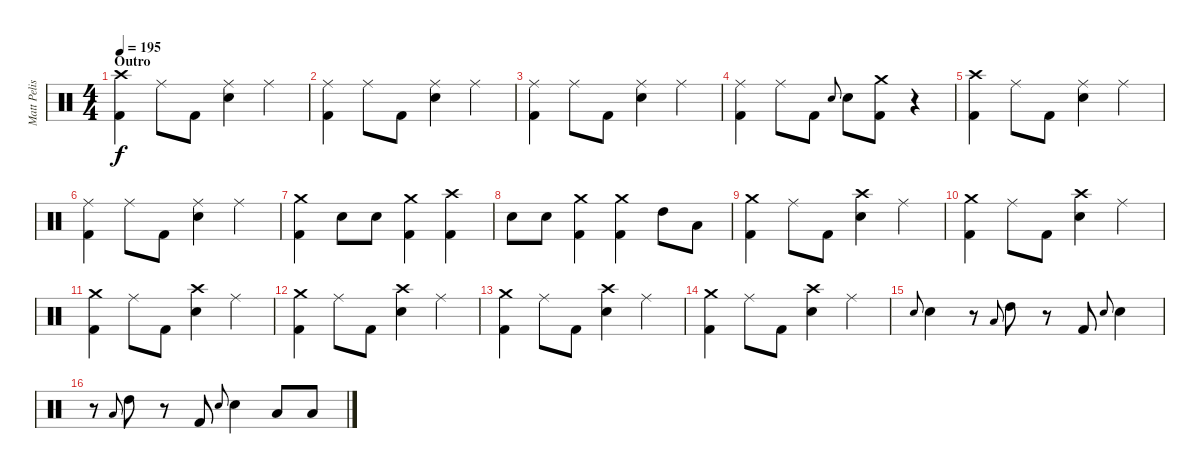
\track ("Matt Pelissier" "Matt Pelis") {instrument percussion}
\staff {score}
\articulation defaults
\ts (4 4)
\section ("" "Outro")
\tempo 195
\clef neutral
\ks c
("Crash high (hit)" "Kick (hit) 2").4{dy f} "Ride (middle)".8 "Kick (hit) 2".8 ("Ride (middle)" "Electric Snare (hit)").4 "Ride (middle)".4 |
("Ride (middle)" "Kick (hit) 2").4 "Ride (middle)".8 "Kick (hit) 2".8 ("Ride (middle)" "Electric Snare (hit)").4 "Ride (middle)".4 |
("Ride (middle)" "Kick (hit) 2").4 "Ride (middle)".8 "Kick (hit) 2".8 ("Ride (middle)" "Electric Snare (hit)").4 "Ride (middle)".4 |
("Ride (middle)" "Kick (hit) 2").4 "Ride (middle)".8 "Kick (hit) 2".8 "Electric Snare (hit)".8{gr onbeat} "Electric Snare (hit)".8 ("Crash medium (hit)" "Kick (hit) 2").8 r.4 |
("Crash high (hit)" "Kick (hit) 2").4 "Ride (middle)".8 "Kick (hit) 2".8 ("Ride (middle)" "Electric Snare (hit)").4 "Ride (middle)".4 |
("Ride (middle)" "Kick (hit) 2").4 "Ride (middle)".8 "Kick (hit) 2".8 ("Ride (middle)" "Electric Snare (hit)").4 "Ride (middle)".4 |
("Crash medium (hit)" "Kick (hit) 2").4 "Electric Snare (hit)".8 "Electric Snare (hit)".8 ("Crash medium (hit)" "Kick (hit) 2").4 ("Crash high (hit)" "Kick (hit) 2").4 |
"Electric Snare (hit)".8 "Electric Snare (hit)".8 ("Crash medium (hit)" "Kick (hit) 2").4 ("Crash medium (hit)" "Kick (hit) 2").4 "High Tom (hit)".8 "Low Tom (hit)".8 |
("Crash medium (hit)" "Kick (hit) 2").4 "Ride (middle)".8 "Kick (hit) 2".8 ("Crash high (hit)" "Electric Snare (hit)").4 "Ride (middle)".4 |
("Crash medium (hit)" "Kick (hit) 2").4 "Ride (middle)".8 "Kick (hit) 2".8 ("Crash high (hit)" "Electric Snare (hit)").4 "Ride (middle)".4 |
("Crash medium (hit)" "Kick (hit) 2").4 "Ride (middle)".8 "Kick (hit) 2".8 ("Crash high (hit)" "Electric Snare (hit)").4 "Ride (middle)".4 |
("Crash medium (hit)" "Kick (hit) 2").4 "Ride (middle)".8 "Kick (hit) 2".8 ("Crash high (hit)" "Electric Snare (hit)").4 "Ride (middle)".4 |
("Crash medium (hit)" "Kick (hit) 2").4 "Ride (middle)".8 "Kick (hit) 2".8 ("Crash high (hit)" "Electric Snare (hit)").4 "Ride (middle)".4 |
("Crash medium (hit)" "Kick (hit) 2").4 "Ride (middle)".8 "Kick (hit) 2".8 ("Crash high (hit)" "Electric Snare (hit)").4 "Ride (middle)".4 |
"Electric Snare (hit)".8{gr onbeat} "Electric Snare (hit)".4 r.8 "Low Tom (hit)".8{gr onbeat} "High Tom (hit)".8 r.8 "Kick (hit) 2".8 "Electric Snare (hit)".8{gr onbeat} "Electric Snare (hit)".4 |
r.8 "Low Tom (hit)".8{gr onbeat} "High Tom (hit)".8 r.8 "Kick (hit) 2".8 "Electric Snare (hit)".8{gr onbeat} "Electric Snare (hit)".4 "Low Tom (hit)".8 "Low Tom (hit)".8
